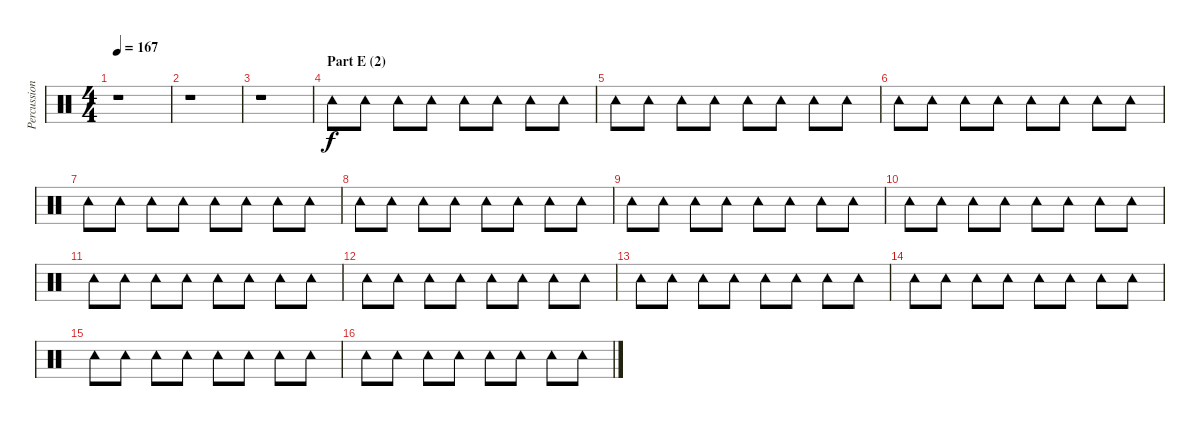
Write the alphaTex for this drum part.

\track ("Percussion" "Percussion") {instrument percussion}
\staff {score}
\articulation defaults
\ts (4 4)
\tempo 167
\clef neutral
\ks c
r.1{dy f} |
r.1 |
r.1 |
\section ("" "Part E (2)")
"Tambourine (hit)".8 "Tambourine (hit)".8 "Tambourine (hit)".8 "Tambourine (hit)".8 "Tambourine (hit)".8 "Tambourine (hit)".8 "Tambourine (hit)".8 "Tambourine (hit)".8 |
"Tambourine (hit)".8 "Tambourine (hit)".8 "Tambourine (hit)".8 "Tambourine (hit)".8 "Tambourine (hit)".8 "Tambourine (hit)".8 "Tambourine (hit)".8 "Tambourine (hit)".8 |
"Tambourine (hit)".8 "Tambourine (hit)".8 "Tambourine (hit)".8 "Tambourine (hit)".8 "Tambourine (hit)".8 "Tambourine (hit)".8 "Tambourine (hit)".8 "Tambourine (hit)".8 |
"Tambourine (hit)".8 "Tambourine (hit)".8 "Tambourine (hit)".8 "Tambourine (hit)".8 "Tambourine (hit)".8 "Tambourine (hit)".8 "Tambourine (hit)".8 "Tambourine (hit)".8 |
"Tambourine (hit)".8 "Tambourine (hit)".8 "Tambourine (hit)".8 "Tambourine (hit)".8 "Tambourine (hit)".8 "Tambourine (hit)".8 "Tambourine (hit)".8 "Tambourine (hit)".8 |
"Tambourine (hit)".8 "Tambourine (hit)".8 "Tambourine (hit)".8 "Tambourine (hit)".8 "Tambourine (hit)".8 "Tambourine (hit)".8 "Tambourine (hit)".8 "Tambourine (hit)".8 |
"Tambourine (hit)".8 "Tambourine (hit)".8 "Tambourine (hit)".8 "Tambourine (hit)".8 "Tambourine (hit)".8 "Tambourine (hit)".8 "Tambourine (hit)".8 "Tambourine (hit)".8 |
"Tambourine (hit)".8 "Tambourine (hit)".8 "Tambourine (hit)".8 "Tambourine (hit)".8 "Tambourine (hit)".8 "Tambourine (hit)".8 "Tambourine (hit)".8 "Tambourine (hit)".8 |
"Tambourine (hit)".8 "Tambourine (hit)".8 "Tambourine (hit)".8 "Tambourine (hit)".8 "Tambourine (hit)".8 "Tambourine (hit)".8 "Tambourine (hit)".8 "Tambourine (hit)".8 |
"Tambourine (hit)".8 "Tambourine (hit)".8 "Tambourine (hit)".8 "Tambourine (hit)".8 "Tambourine (hit)".8 "Tambourine (hit)".8 "Tambourine (hit)".8 "Tambourine (hit)".8 |
"Tambourine (hit)".8 "Tambourine (hit)".8 "Tambourine (hit)".8 "Tambourine (hit)".8 "Tambourine (hit)".8 "Tambourine (hit)".8 "Tambourine (hit)".8 "Tambourine (hit)".8 |
"Tambourine (hit)".8 "Tambourine (hit)".8 "Tambourine (hit)".8 "Tambourine (hit)".8 "Tambourine (hit)".8 "Tambourine (hit)".8 "Tambourine (hit)".8 "Tambourine (hit)".8 |
"Tambourine (hit)".8 "Tambourine (hit)".8 "Tambourine (hit)".8 "Tambourine (hit)".8 "Tambourine (hit)".8 "Tambourine (hit)".8 "Tambourine (hit)".8 "Tambourine (hit)".8
